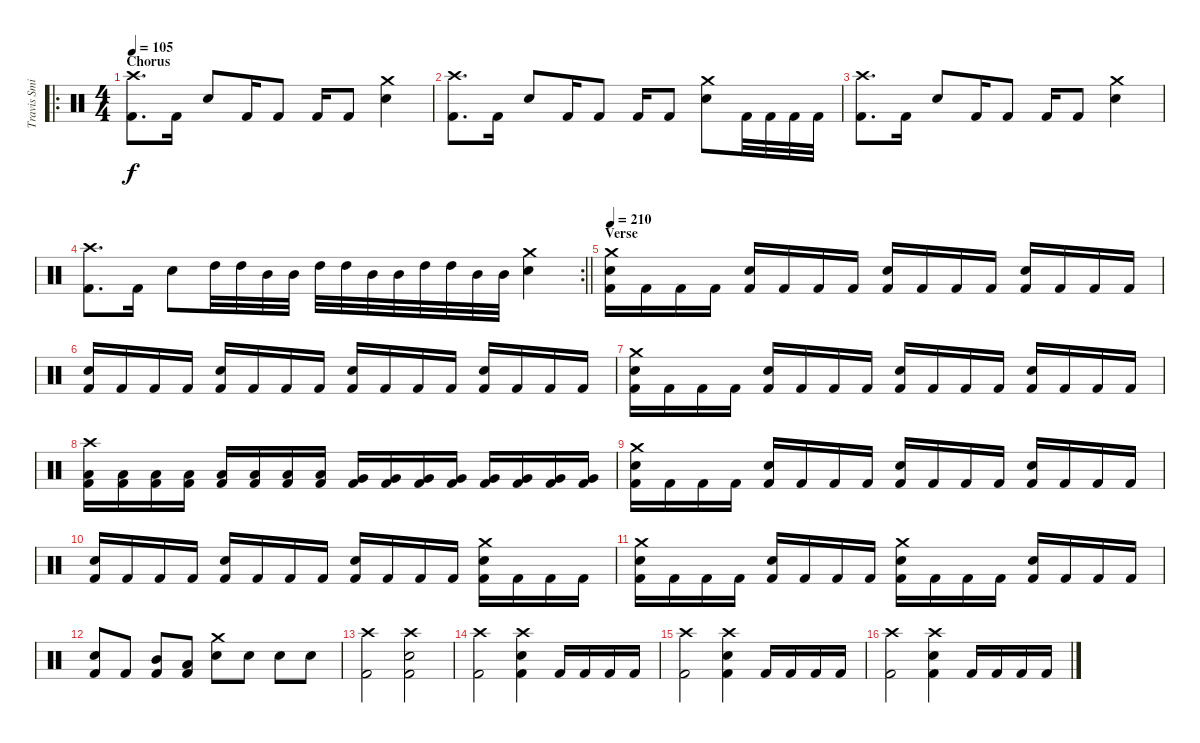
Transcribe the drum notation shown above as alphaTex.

\track ("Travis Smith" "Travis Smi") {instrument percussion}
\staff {score}
\articulation defaults
\ro
\ts (4 4)
\section ("" "Chorus")
\tempo 105
\clef neutral
\ks c
("Crash high (hit)" "Kick (hit) 2").8{d dy f} "Kick (hit) 2".16 "Snare (hit) 2".8 "Kick (hit) 2".16 "Kick (hit) 2".8 "Kick (hit) 2".16 "Kick (hit) 2".8 ("Crash medium (hit)" "Snare (hit) 2").4 |
("Crash high (hit)" "Kick (hit) 2").8{d} "Kick (hit) 2".16 "Snare (hit) 2".8 "Kick (hit) 2".16 "Kick (hit) 2".8 "Kick (hit) 2".16 "Kick (hit) 2".8 ("Crash medium (hit)" "Snare (hit) 2").8 "Kick (hit) 2".32 "Kick (hit) 2".32 "Kick (hit) 2".32 "Kick (hit) 2".32 |
("Crash high (hit)" "Kick (hit) 2").8{d} "Kick (hit) 2".16 "Snare (hit) 2".8 "Kick (hit) 2".16 "Kick (hit) 2".8 "Kick (hit) 2".16 "Kick (hit) 2".8 ("Crash medium (hit)" "Snare (hit) 2").4 |
\rc 2
\barLineRight lightlight
("Crash high (hit)" "Kick (hit) 2").8{d} "Kick (hit) 2".16 "Snare (hit) 2".8 "High Tom (hit)".32 "High Tom (hit)".32 "Mid Tom (hit)".32 "Mid Tom (hit)".32 "High Tom (hit)".32 "High Tom (hit)".32 "Mid Tom (hit)".32 "Mid Tom (hit)".32 "High Tom (hit)".32 "High Tom (hit)".32 "Mid Tom (hit)".32 "Mid Tom (hit)".32 ("Crash medium (hit)" "Snare (hit) 2").4 |
\section ("" "Verse")
\tempo 210
("Crash medium (hit)" "Snare (hit) 2" "Kick (hit) 2").16 "Kick (hit) 2".16 "Kick (hit) 2".16 "Kick (hit) 2".16 ("Snare (hit) 2" "Kick (hit) 2").16 "Kick (hit) 2".16 "Kick (hit) 2".16 "Kick (hit) 2".16 ("Snare (hit) 2" "Kick (hit) 2").16 "Kick (hit) 2".16 "Kick (hit) 2".16 "Kick (hit) 2".16 ("Snare (hit) 2" "Kick (hit) 2").16 "Kick (hit) 2".16 "Kick (hit) 2".16 "Kick (hit) 2".16 |
("Snare (hit) 2" "Kick (hit) 2").16 "Kick (hit) 2".16 "Kick (hit) 2".16 "Kick (hit) 2".16 ("Snare (hit) 2" "Kick (hit) 2").16 "Kick (hit) 2".16 "Kick (hit) 2".16 "Kick (hit) 2".16 ("Snare (hit) 2" "Kick (hit) 2").16 "Kick (hit) 2".16 "Kick (hit) 2".16 "Kick (hit) 2".16 ("Snare (hit) 2" "Kick (hit) 2").16 "Kick (hit) 2".16 "Kick (hit) 2".16 "Kick (hit) 2".16 |
("Crash medium (hit)" "Snare (hit) 2" "Kick (hit) 2").16 "Kick (hit) 2".16 "Kick (hit) 2".16 "Kick (hit) 2".16 ("Snare (hit) 2" "Kick (hit) 2").16 "Kick (hit) 2".16 "Kick (hit) 2".16 "Kick (hit) 2".16 ("Snare (hit) 2" "Kick (hit) 2").16 "Kick (hit) 2".16 "Kick (hit) 2".16 "Kick (hit) 2".16 ("Snare (hit) 2" "Kick (hit) 2").16 "Kick (hit) 2".16 "Kick (hit) 2".16 "Kick (hit) 2".16 |
("Crash high (hit)" "Low Tom (hit)" "Kick (hit) 2").16 ("Low Tom (hit)" "Kick (hit) 2").16 ("Low Tom (hit)" "Kick (hit) 2").16 ("Low Tom (hit)" "Kick (hit) 2").16 ("Low Tom (hit)" "Kick (hit) 2").16 ("Low Tom (hit)" "Kick (hit) 2").16 ("Low Tom (hit)" "Kick (hit) 2").16 ("Low Tom (hit)" "Kick (hit) 2").16 ("Very Low Tom (hit)" "Kick (hit) 2").16 ("Very Low Tom (hit)" "Kick (hit) 2").16 ("Very Low Tom (hit)" "Kick (hit) 2").16 ("Very Low Tom (hit)" "Kick (hit) 2").16 ("Very Low Tom (hit)" "Kick (hit) 2").16 ("Very Low Tom (hit)" "Kick (hit) 2").16 ("Very Low Tom (hit)" "Kick (hit) 2").16 ("Very Low Tom (hit)" "Kick (hit) 2").16 |
("Crash medium (hit)" "Snare (hit) 2" "Kick (hit) 2").16 "Kick (hit) 2".16 "Kick (hit) 2".16 "Kick (hit) 2".16 ("Snare (hit) 2" "Kick (hit) 2").16 "Kick (hit) 2".16 "Kick (hit) 2".16 "Kick (hit) 2".16 ("Snare (hit) 2" "Kick (hit) 2").16 "Kick (hit) 2".16 "Kick (hit) 2".16 "Kick (hit) 2".16 ("Snare (hit) 2" "Kick (hit) 2").16 "Kick (hit) 2".16 "Kick (hit) 2".16 "Kick (hit) 2".16 |
("Snare (hit) 2" "Kick (hit) 2").16 "Kick (hit) 2".16 "Kick (hit) 2".16 "Kick (hit) 2".16 ("Snare (hit) 2" "Kick (hit) 2").16 "Kick (hit) 2".16 "Kick (hit) 2".16 "Kick (hit) 2".16 ("Snare (hit) 2" "Kick (hit) 2").16 "Kick (hit) 2".16 "Kick (hit) 2".16 "Kick (hit) 2".16 ("Crash medium (hit)" "Snare (hit) 2" "Kick (hit) 2").16 "Kick (hit) 2".16 "Kick (hit) 2".16 "Kick (hit) 2".16 |
("Crash medium (hit)" "Snare (hit) 2" "Kick (hit) 2").16 "Kick (hit) 2".16 "Kick (hit) 2".16 "Kick (hit) 2".16 ("Snare (hit) 2" "Kick (hit) 2").16 "Kick (hit) 2".16 "Kick (hit) 2".16 "Kick (hit) 2".16 ("Crash medium (hit)" "Snare (hit) 2" "Kick (hit) 2").16 "Kick (hit) 2".16 "Kick (hit) 2".16 "Kick (hit) 2".16 ("Snare (hit) 2" "Kick (hit) 2").16 "Kick (hit) 2".16 "Kick (hit) 2".16 "Kick (hit) 2".16 |
("Snare (hit) 2" "Kick (hit) 2").8 "Kick (hit) 2".8 ("Mid Tom (hit)" "Kick (hit) 2").8 ("Low Tom (hit)" "Kick (hit) 2").8 ("Crash medium (hit)" "Snare (hit) 2").8 "Snare (hit) 2".8 "Snare (hit) 2".8 "Snare (hit) 2".8 |
("Crash high (hit)" "Kick (hit) 2").2 ("Crash high (hit)" "Snare (hit) 2" "Kick (hit) 2").2 |
("Crash high (hit)" "Kick (hit) 2").2 ("Crash high (hit)" "Snare (hit) 2" "Kick (hit) 2").4 "Kick (hit) 2".16 "Kick (hit) 2".16 "Kick (hit) 2".16 "Kick (hit) 2".16 |
("Crash high (hit)" "Kick (hit) 2").2 ("Crash high (hit)" "Snare (hit) 2" "Kick (hit) 2").4 "Kick (hit) 2".16 "Kick (hit) 2".16 "Kick (hit) 2".16 "Kick (hit) 2".16 |
("Crash high (hit)" "Kick (hit) 2").2 ("Crash high (hit)" "Snare (hit) 2" "Kick (hit) 2").4 "Kick (hit) 2".16 "Kick (hit) 2".16 "Kick (hit) 2".16 "Kick (hit) 2".16
